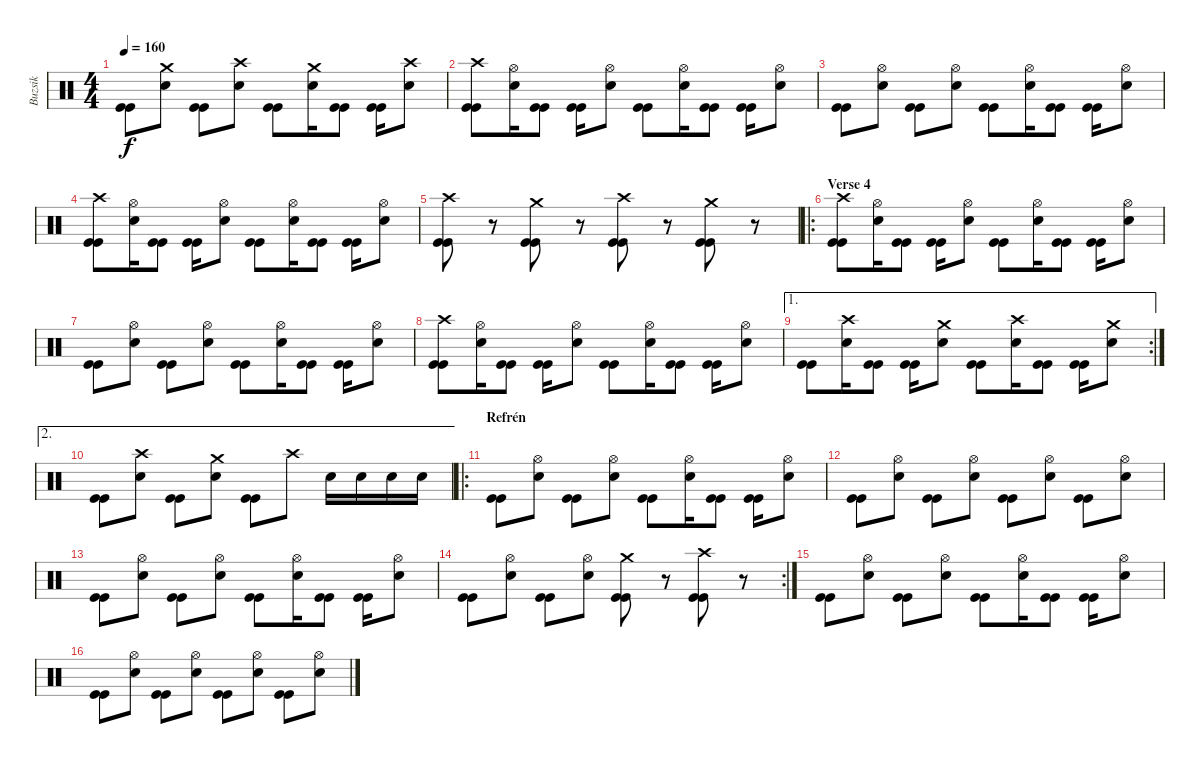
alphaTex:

\track ("Buzsik" "Buzsik") {instrument percussion}
\staff {score}
\articulation defaults
\ts (4 4)
\tempo 160
\clef neutral
\ks c
("Kick (hit)" "Kick (hit)").8{dy f} ("Crash medium (hit)" "Electric Snare (hit)").8 ("Kick (hit)" "Kick (hit)").8 ("Crash high (hit)" "Electric Snare (hit)").8 ("Kick (hit)" "Kick (hit)").8 ("Crash medium (hit)" "Electric Snare (hit)").16 ("Kick (hit)" "Kick (hit)").8 ("Kick (hit)" "Kick (hit)").16 ("Crash high (hit)" "Electric Snare (hit)").8 |
("Crash high (hit)" "Kick (hit)" "Kick (hit)").8 ("Hi-Hat (open)" "Electric Snare (hit)").16 ("Kick (hit)" "Kick (hit)").8 ("Kick (hit)" "Kick (hit)").16 ("Hi-Hat (open)" "Electric Snare (hit)").8 ("Kick (hit)" "Kick (hit)").8 ("Hi-Hat (open)" "Electric Snare (hit)").16 ("Kick (hit)" "Kick (hit)").8 ("Kick (hit)" "Kick (hit)").16 ("Hi-Hat (open)" "Electric Snare (hit)").8 |
("Kick (hit)" "Kick (hit)").8 ("Hi-Hat (open)" "Electric Snare (hit)").8 ("Kick (hit)" "Kick (hit)").8 ("Hi-Hat (open)" "Electric Snare (hit)").8 ("Kick (hit)" "Kick (hit)").8 ("Hi-Hat (open)" "Electric Snare (hit)").16 ("Kick (hit)" "Kick (hit)").8 ("Kick (hit)" "Kick (hit)").16 ("Hi-Hat (open)" "Electric Snare (hit)").8 |
("Crash high (hit)" "Kick (hit)" "Kick (hit)").8 ("Hi-Hat (open)" "Electric Snare (hit)").16 ("Kick (hit)" "Kick (hit)").8 ("Kick (hit)" "Kick (hit)").16 ("Hi-Hat (open)" "Electric Snare (hit)").8 ("Kick (hit)" "Kick (hit)").8 ("Hi-Hat (open)" "Electric Snare (hit)").16 ("Kick (hit)" "Kick (hit)").8 ("Kick (hit)" "Kick (hit)").16 ("Hi-Hat (open)" "Electric Snare (hit)").8 |
("Crash high (hit)" "Kick (hit)" "Kick (hit)").8 r.8 ("Crash medium (hit)" "Kick (hit)" "Kick (hit)").8 r.8 ("Crash high (hit)" "Kick (hit)" "Kick (hit)").8 r.8 ("Crash medium (hit)" "Kick (hit)" "Kick (hit)").8 r.8 |
\ro
\section ("" "Verse 4")
("Crash high (hit)" "Kick (hit)" "Kick (hit)").8 ("Hi-Hat (open)" "Electric Snare (hit)").16 ("Kick (hit)" "Kick (hit)").8 ("Kick (hit)" "Kick (hit)").16 ("Hi-Hat (open)" "Electric Snare (hit)").8 ("Kick (hit)" "Kick (hit)").8 ("Hi-Hat (open)" "Electric Snare (hit)").16 ("Kick (hit)" "Kick (hit)").8 ("Kick (hit)" "Kick (hit)").16 ("Hi-Hat (open)" "Electric Snare (hit)").8 |
("Kick (hit)" "Kick (hit)").8 ("Hi-Hat (open)" "Electric Snare (hit)").8 ("Kick (hit)" "Kick (hit)").8 ("Hi-Hat (open)" "Electric Snare (hit)").8 ("Kick (hit)" "Kick (hit)").8 ("Hi-Hat (open)" "Electric Snare (hit)").16 ("Kick (hit)" "Kick (hit)").8 ("Kick (hit)" "Kick (hit)").16 ("Hi-Hat (open)" "Electric Snare (hit)").8 |
("Crash high (hit)" "Kick (hit)" "Kick (hit)").8 ("Hi-Hat (open)" "Electric Snare (hit)").16 ("Kick (hit)" "Kick (hit)").8 ("Kick (hit)" "Kick (hit)").16 ("Hi-Hat (open)" "Electric Snare (hit)").8 ("Kick (hit)" "Kick (hit)").8 ("Hi-Hat (open)" "Electric Snare (hit)").16 ("Kick (hit)" "Kick (hit)").8 ("Kick (hit)" "Kick (hit)").16 ("Hi-Hat (open)" "Electric Snare (hit)").8 |
\ae 1
\rc 2
("Kick (hit)" "Kick (hit)").8 ("Crash high (hit)" "Electric Snare (hit)").16 ("Kick (hit)" "Kick (hit)").8 ("Kick (hit)" "Kick (hit)").16 ("Crash medium (hit)" "Electric Snare (hit)").8 ("Kick (hit)" "Kick (hit)").8 ("Crash high (hit)" "Electric Snare (hit)").16 ("Kick (hit)" "Kick (hit)").8 ("Kick (hit)" "Kick (hit)").16 ("Crash medium (hit)" "Electric Snare (hit)").8 |
\ae 2
("Kick (hit)" "Kick (hit)").8 ("Crash high (hit)" "Electric Snare (hit)").8 ("Kick (hit)" "Kick (hit)").8 ("Crash medium (hit)" "Electric Snare (hit)").8 ("Kick (hit)" "Kick (hit)").8 "Crash high (hit)".8 "Electric Snare (hit)".16 "Electric Snare (hit)".16 "Electric Snare (hit)".16 "Electric Snare (hit)".16 |
\ro
\section ("" "Refrén")
("Kick (hit)" "Kick (hit)").8 ("Hi-Hat (open)" "Electric Snare (hit)").8 ("Kick (hit)" "Kick (hit)").8 ("Hi-Hat (open)" "Electric Snare (hit)").8 ("Kick (hit)" "Kick (hit)").8 ("Hi-Hat (open)" "Electric Snare (hit)").16 ("Kick (hit)" "Kick (hit)").8 ("Kick (hit)" "Kick (hit)").16 ("Hi-Hat (open)" "Electric Snare (hit)").8 |
("Kick (hit)" "Kick (hit)").8 ("Hi-Hat (open)" "Electric Snare (hit)").8 ("Kick (hit)" "Kick (hit)").8 ("Hi-Hat (open)" "Electric Snare (hit)").8 ("Kick (hit)" "Kick (hit)").8 ("Hi-Hat (open)" "Electric Snare (hit)").8 ("Kick (hit)" "Kick (hit)").8 ("Hi-Hat (open)" "Electric Snare (hit)").8 |
("Kick (hit)" "Kick (hit)").8 ("Hi-Hat (open)" "Electric Snare (hit)").8 ("Kick (hit)" "Kick (hit)").8 ("Hi-Hat (open)" "Electric Snare (hit)").8 ("Kick (hit)" "Kick (hit)").8 ("Hi-Hat (open)" "Electric Snare (hit)").16 ("Kick (hit)" "Kick (hit)").8 ("Kick (hit)" "Kick (hit)").16 ("Hi-Hat (open)" "Electric Snare (hit)").8 |
\rc 2
("Kick (hit)" "Kick (hit)").8 ("Hi-Hat (open)" "Electric Snare (hit)").8 ("Kick (hit)" "Kick (hit)").8 ("Hi-Hat (open)" "Electric Snare (hit)").8 ("Crash medium (hit)" "Kick (hit)" "Kick (hit)").8 r.8 ("Crash high (hit)" "Kick (hit)" "Kick (hit)").8 r.8 |
("Kick (hit)" "Kick (hit)").8 ("Hi-Hat (open)" "Electric Snare (hit)").8 ("Kick (hit)" "Kick (hit)").8 ("Hi-Hat (open)" "Electric Snare (hit)").8 ("Kick (hit)" "Kick (hit)").8 ("Hi-Hat (open)" "Electric Snare (hit)").16 ("Kick (hit)" "Kick (hit)").8 ("Kick (hit)" "Kick (hit)").16 ("Hi-Hat (open)" "Electric Snare (hit)").8 |
("Kick (hit)" "Kick (hit)").8 ("Hi-Hat (open)" "Electric Snare (hit)").8 ("Kick (hit)" "Kick (hit)").8 ("Hi-Hat (open)" "Electric Snare (hit)").8 ("Kick (hit)" "Kick (hit)").8 ("Hi-Hat (open)" "Electric Snare (hit)").8 ("Kick (hit)" "Kick (hit)").8 ("Hi-Hat (open)" "Electric Snare (hit)").8
